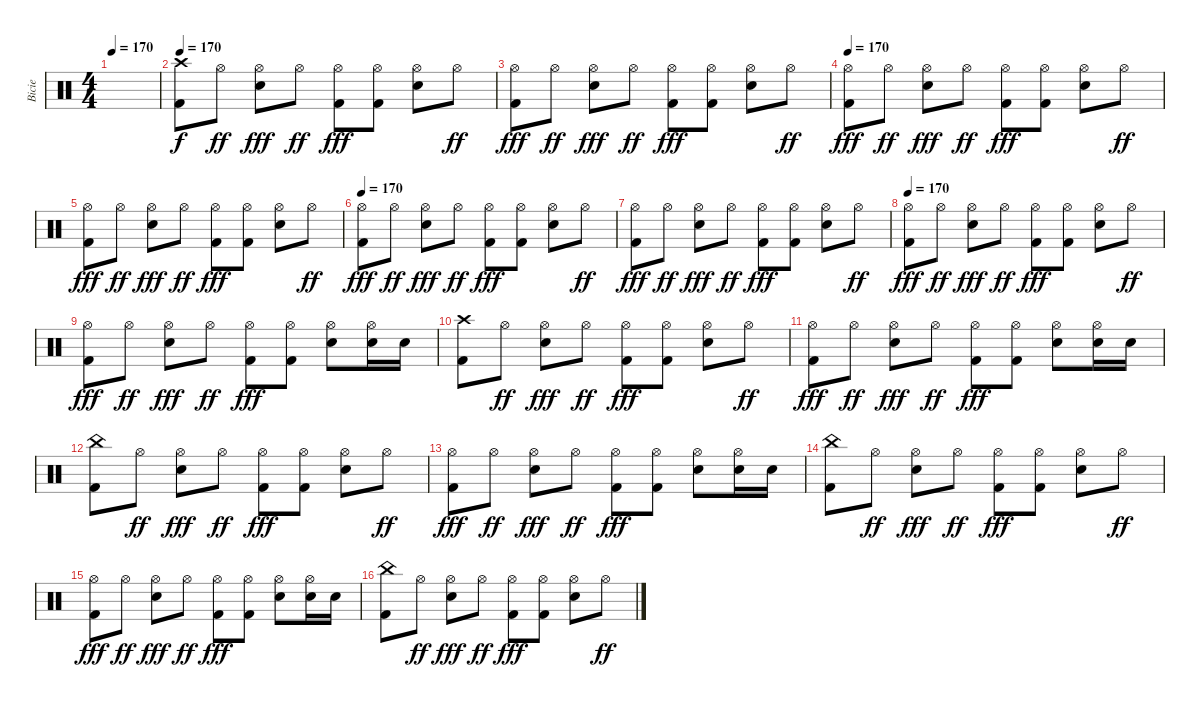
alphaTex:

\track ("Bicie" "Bicie") {instrument percussion}
\staff {score}
\articulation defaults
\ts (4 4)
\tempo 170
\clef neutral
\ks c
|
\tempo 170
("Crash high (hit)" "Kick (hit) 2").8{volume 16} "Hi-Hat (open)".8{dy ff} ("Hi-Hat (open)" "Electric Snare (hit)").8{dy fff} "Hi-Hat (open)".8{dy ff} ("Hi-Hat (open)" "Kick (hit) 2").8{dy fff} ("Hi-Hat (open)" "Kick (hit) 2").8 ("Hi-Hat (open)" "Electric Snare (hit)").8 "Hi-Hat (open)".8{dy ff} |
("Hi-Hat (open)" "Kick (hit) 2").8{dy fff} "Hi-Hat (open)".8{dy ff} ("Hi-Hat (open)" "Electric Snare (hit)").8{dy fff} "Hi-Hat (open)".8{dy ff} ("Hi-Hat (open)" "Kick (hit) 2").8{dy fff} ("Hi-Hat (open)" "Kick (hit) 2").8 ("Hi-Hat (open)" "Electric Snare (hit)").8 "Hi-Hat (open)".8{dy ff} |
\tempo 170
("Hi-Hat (open)" "Kick (hit) 2").8{dy fff} "Hi-Hat (open)".8{dy ff} ("Hi-Hat (open)" "Electric Snare (hit)").8{dy fff} "Hi-Hat (open)".8{dy ff} ("Hi-Hat (open)" "Kick (hit) 2").8{dy fff} ("Hi-Hat (open)" "Kick (hit) 2").8 ("Hi-Hat (open)" "Electric Snare (hit)").8 "Hi-Hat (open)".8{dy ff} |
("Hi-Hat (open)" "Kick (hit) 2").8{dy fff} "Hi-Hat (open)".8{dy ff} ("Hi-Hat (open)" "Electric Snare (hit)").8{dy fff} "Hi-Hat (open)".8{dy ff} ("Hi-Hat (open)" "Kick (hit) 2").8{dy fff} ("Hi-Hat (open)" "Kick (hit) 2").8 ("Hi-Hat (open)" "Electric Snare (hit)").8 "Hi-Hat (open)".8{dy ff} |
\tempo 170
("Hi-Hat (open)" "Kick (hit) 2").8{dy fff} "Hi-Hat (open)".8{dy ff} ("Hi-Hat (open)" "Electric Snare (hit)").8{dy fff} "Hi-Hat (open)".8{dy ff} ("Hi-Hat (open)" "Kick (hit) 2").8{dy fff} ("Hi-Hat (open)" "Kick (hit) 2").8 ("Hi-Hat (open)" "Electric Snare (hit)").8 "Hi-Hat (open)".8{dy ff} |
("Hi-Hat (open)" "Kick (hit) 2").8{dy fff} "Hi-Hat (open)".8{dy ff} ("Hi-Hat (open)" "Electric Snare (hit)").8{dy fff} "Hi-Hat (open)".8{dy ff} ("Hi-Hat (open)" "Kick (hit) 2").8{dy fff} ("Hi-Hat (open)" "Kick (hit) 2").8 ("Hi-Hat (open)" "Electric Snare (hit)").8 "Hi-Hat (open)".8{dy ff} |
\tempo 170
("Hi-Hat (open)" "Kick (hit) 2").8{dy fff} "Hi-Hat (open)".8{dy ff} ("Hi-Hat (open)" "Electric Snare (hit)").8{dy fff} "Hi-Hat (open)".8{dy ff} ("Hi-Hat (open)" "Kick (hit) 2").8{dy fff} ("Hi-Hat (open)" "Kick (hit) 2").8 ("Hi-Hat (open)" "Electric Snare (hit)").8 "Hi-Hat (open)".8{dy ff} |
("Hi-Hat (open)" "Kick (hit) 2").8{dy fff} "Hi-Hat (open)".8{dy ff} ("Hi-Hat (open)" "Electric Snare (hit)").8{dy fff} "Hi-Hat (open)".8{dy ff} ("Hi-Hat (open)" "Kick (hit) 2").8{dy fff} ("Hi-Hat (open)" "Kick (hit) 2").8 ("Hi-Hat (open)" "Electric Snare (hit)").8 ("Hi-Hat (open)" "Electric Snare (hit)").16 "Electric Snare (hit)".16 |
("Crash high (hit)" "Kick (hit) 2").8 "Hi-Hat (open)".8{dy ff} ("Hi-Hat (open)" "Electric Snare (hit)").8{dy fff} "Hi-Hat (open)".8{dy ff} ("Hi-Hat (open)" "Kick (hit) 2").8{dy fff} ("Hi-Hat (open)" "Kick (hit) 2").8 ("Hi-Hat (open)" "Electric Snare (hit)").8 "Hi-Hat (open)".8{dy ff} |
("Hi-Hat (open)" "Kick (hit) 2").8{dy fff} "Hi-Hat (open)".8{dy ff} ("Hi-Hat (open)" "Electric Snare (hit)").8{dy fff} "Hi-Hat (open)".8{dy ff} ("Hi-Hat (open)" "Kick (hit) 2").8{dy fff} ("Hi-Hat (open)" "Kick (hit) 2").8 ("Hi-Hat (open)" "Electric Snare (hit)").8 ("Hi-Hat (open)" "Electric Snare (hit)").16 "Electric Snare (hit)".16 |
("China (hit)" "Kick (hit) 2").8 "Hi-Hat (open)".8{dy ff} ("Hi-Hat (open)" "Electric Snare (hit)").8{dy fff} "Hi-Hat (open)".8{dy ff} ("Hi-Hat (open)" "Kick (hit) 2").8{dy fff} ("Hi-Hat (open)" "Kick (hit) 2").8 ("Hi-Hat (open)" "Electric Snare (hit)").8 "Hi-Hat (open)".8{dy ff} |
("Hi-Hat (open)" "Kick (hit) 2").8{dy fff} "Hi-Hat (open)".8{dy ff} ("Hi-Hat (open)" "Electric Snare (hit)").8{dy fff} "Hi-Hat (open)".8{dy ff} ("Hi-Hat (open)" "Kick (hit) 2").8{dy fff} ("Hi-Hat (open)" "Kick (hit) 2").8 ("Hi-Hat (open)" "Electric Snare (hit)").8 ("Hi-Hat (open)" "Electric Snare (hit)").16 "Electric Snare (hit)".16 |
("China (hit)" "Kick (hit) 2").8 "Hi-Hat (open)".8{dy ff} ("Hi-Hat (open)" "Electric Snare (hit)").8{dy fff} "Hi-Hat (open)".8{dy ff} ("Hi-Hat (open)" "Kick (hit) 2").8{dy fff} ("Hi-Hat (open)" "Kick (hit) 2").8 ("Hi-Hat (open)" "Electric Snare (hit)").8 "Hi-Hat (open)".8{dy ff} |
("Hi-Hat (open)" "Kick (hit) 2").8{dy fff} "Hi-Hat (open)".8{dy ff} ("Hi-Hat (open)" "Electric Snare (hit)").8{dy fff} "Hi-Hat (open)".8{dy ff} ("Hi-Hat (open)" "Kick (hit) 2").8{dy fff} ("Hi-Hat (open)" "Kick (hit) 2").8 ("Hi-Hat (open)" "Electric Snare (hit)").8 ("Hi-Hat (open)" "Electric Snare (hit)").16 "Electric Snare (hit)".16 |
("China (hit)" "Kick (hit) 2").8 "Hi-Hat (open)".8{dy ff} ("Hi-Hat (open)" "Electric Snare (hit)").8{dy fff} "Hi-Hat (open)".8{dy ff} ("Hi-Hat (open)" "Kick (hit) 2").8{dy fff} ("Hi-Hat (open)" "Kick (hit) 2").8 ("Hi-Hat (open)" "Electric Snare (hit)").8 "Hi-Hat (open)".8{dy ff}
